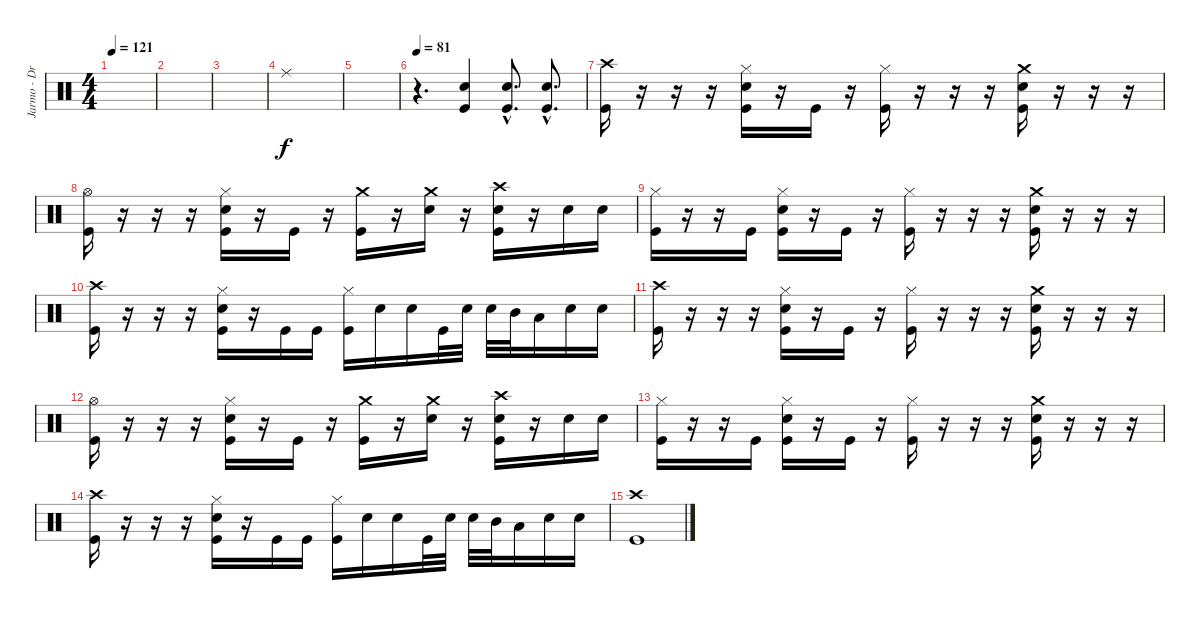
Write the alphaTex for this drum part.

\track ("Jarmo - Drums" "Jarmo - Dr") {instrument percussion}
\staff {score}
\articulation defaults
\ts (4 4)
\tempo 121
\clef neutral
\ks c
|
|
|
"Ride (middle)".1 |
|
\tempo 81
r.4{d} ("Kick (hit)" "Electric Snare (hit)").4 ("Kick (hit)"{hac} "Electric Snare (hit)"{hac}).8{d} ("Kick (hit)"{hac} "Electric Snare (hit)"{hac}).8{d} |
("Kick (hit)" "Crash high (hit)").16 r.16 r.16 r.16 ("Kick (hit)" "Electric Snare (hit)" "Hi-Hat (closed)").16 r.16 "Kick (hit)".16 r.16 ("Kick (hit)" "Hi-Hat (closed)").16 r.16 r.16 r.16 ("Kick (hit)" "Electric Snare (hit)" "Crash medium (hit)").16 r.16 r.16 r.16 |
("Kick (hit)" "Hi-Hat (open)").16 r.16 r.16 r.16 ("Kick (hit)" "Electric Snare (hit)" "Hi-Hat (closed)").16 r.16 "Kick (hit)".16 r.16 ("Kick (hit)" "Crash medium (hit)").16 r.16 ("Electric Snare (hit)" "Crash medium (hit)").16 r.16 ("Kick (hit)" "Electric Snare (hit)" "Crash high (hit)").16 r.16 "Electric Snare (hit)".16 "Electric Snare (hit)".16 |
("Kick (hit)" "Hi-Hat (closed)").16 r.16 r.16 "Kick (hit)".16 ("Kick (hit)" "Electric Snare (hit)" "Hi-Hat (closed)").16 r.16 "Kick (hit)".16 r.16 ("Kick (hit)" "Hi-Hat (closed)").16 r.16 r.16 r.16 ("Kick (hit)" "Electric Snare (hit)" "Crash medium (hit)").16 r.16 r.16 r.16 |
("Kick (hit)" "Crash high (hit)").16 r.16 r.16 r.16 ("Kick (hit)" "Electric Snare (hit)" "Hi-Hat (closed)").16 r.16 "Kick (hit)".16 "Kick (hit)".16 ("Kick (hit)" "Hi-Hat (closed)").16 "Electric Snare (hit)".16 "Electric Snare (hit)".16 "Kick (hit)".32 "Electric Snare (hit)".32 "Electric Snare (hit)".32 "Mid Tom (hit)".32 "Low Tom (hit)".16 "Electric Snare (hit)".16 "Electric Snare (hit)".16 |
("Kick (hit)" "Crash high (hit)").16 r.16 r.16 r.16 ("Kick (hit)" "Electric Snare (hit)" "Hi-Hat (closed)").16 r.16 "Kick (hit)".16 r.16 ("Kick (hit)" "Hi-Hat (closed)").16 r.16 r.16 r.16 ("Kick (hit)" "Electric Snare (hit)" "Crash medium (hit)").16 r.16 r.16 r.16 |
("Kick (hit)" "Hi-Hat (open)").16 r.16 r.16 r.16 ("Kick (hit)" "Electric Snare (hit)" "Hi-Hat (closed)").16 r.16 "Kick (hit)".16 r.16 ("Kick (hit)" "Crash medium (hit)").16 r.16 ("Electric Snare (hit)" "Crash medium (hit)").16 r.16 ("Kick (hit)" "Electric Snare (hit)" "Crash high (hit)").16 r.16 "Electric Snare (hit)".16 "Electric Snare (hit)".16 |
("Kick (hit)" "Hi-Hat (closed)").16 r.16 r.16 "Kick (hit)".16 ("Kick (hit)" "Electric Snare (hit)" "Hi-Hat (closed)").16 r.16 "Kick (hit)".16 r.16 ("Kick (hit)" "Hi-Hat (closed)").16 r.16 r.16 r.16 ("Kick (hit)" "Electric Snare (hit)" "Crash medium (hit)").16 r.16 r.16 r.16 |
("Kick (hit)" "Crash high (hit)").16 r.16 r.16 r.16 ("Kick (hit)" "Electric Snare (hit)" "Hi-Hat (closed)").16 r.16 "Kick (hit)".16 "Kick (hit)".16 ("Kick (hit)" "Hi-Hat (closed)").16 "Electric Snare (hit)".16 "Electric Snare (hit)".16 "Kick (hit)".32 "Electric Snare (hit)".32 "Electric Snare (hit)".32 "Mid Tom (hit)".32 "Low Tom (hit)".16 "Electric Snare (hit)".16 "Electric Snare (hit)".16 |
("Kick (hit)" "Crash high (hit)").1
